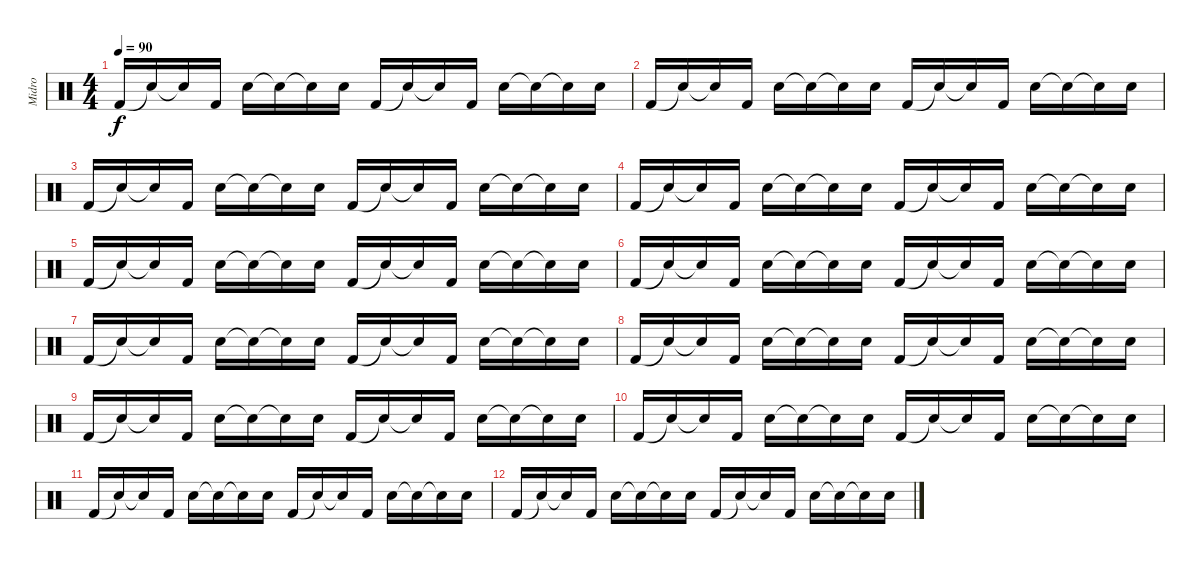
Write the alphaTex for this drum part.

\track ("Midro" "Midro") {instrument percussion}
\staff {score}
\articulation defaults
\ts (4 4)
\tempo 90
\clef neutral
\ks c "Kick (hit) 2".16{dy f} "Snare (hit)"{t}.16 "Snare (hit)"{t}.16 "Kick (hit) 2".16 "Electric Snare (hit)".16 "Snare (hit)"{t}.16 "Electric Snare (hit)"{t}.16 "Electric Snare (hit)".16 "Kick (hit) 2".16 "Snare (hit)"{t}.16 "Snare (hit)"{t}.16 "Kick (hit) 2".16 "Electric Snare (hit)".16 "Snare (hit)"{t}.16 "Snare (hit)"{t}.16 "Electric Snare (hit)".16
|
"Kick (hit) 2".16 "Snare (hit)"{t}.16 "Snare (hit)"{t}.16 "Kick (hit) 2".16 "Electric Snare (hit)".16 "Snare (hit)"{t}.16 "Electric Snare (hit)"{t}.16 "Electric Snare (hit)".16 "Kick (hit) 2".16 "Snare (hit)"{t}.16 "Snare (hit)"{t}.16 "Kick (hit) 2".16 "Electric Snare (hit)".16 "Snare (hit)"{t}.16 "Snare (hit)"{t}.16 "Electric Snare (hit)".16 |
"Kick (hit) 2".16 "Snare (hit)"{t}.16 "Snare (hit)"{t}.16 "Kick (hit) 2".16 "Electric Snare (hit)".16 "Snare (hit)"{t}.16 "Electric Snare (hit)"{t}.16 "Electric Snare (hit)".16 "Kick (hit) 2".16 "Snare (hit)"{t}.16 "Snare (hit)"{t}.16 "Kick (hit) 2".16 "Electric Snare (hit)".16 "Snare (hit)"{t}.16 "Snare (hit)"{t}.16 "Electric Snare (hit)".16 |
"Kick (hit) 2".16 "Snare (hit)"{t}.16 "Snare (hit)"{t}.16 "Kick (hit) 2".16 "Electric Snare (hit)".16 "Snare (hit)"{t}.16 "Electric Snare (hit)"{t}.16 "Electric Snare (hit)".16 "Kick (hit) 2".16 "Snare (hit)"{t}.16 "Snare (hit)"{t}.16 "Kick (hit) 2".16 "Electric Snare (hit)".16 "Snare (hit)"{t}.16 "Snare (hit)"{t}.16 "Electric Snare (hit)".16 |
"Kick (hit) 2".16 "Snare (hit)"{t}.16 "Snare (hit)"{t}.16 "Kick (hit) 2".16 "Electric Snare (hit)".16 "Snare (hit)"{t}.16 "Electric Snare (hit)"{t}.16 "Electric Snare (hit)".16 "Kick (hit) 2".16 "Snare (hit)"{t}.16 "Snare (hit)"{t}.16 "Kick (hit) 2".16 "Electric Snare (hit)".16 "Snare (hit)"{t}.16 "Snare (hit)"{t}.16 "Electric Snare (hit)".16 |
"Kick (hit) 2".16 "Snare (hit)"{t}.16 "Snare (hit)"{t}.16 "Kick (hit) 2".16 "Electric Snare (hit)".16 "Snare (hit)"{t}.16 "Electric Snare (hit)"{t}.16 "Electric Snare (hit)".16 "Kick (hit) 2".16 "Snare (hit)"{t}.16 "Snare (hit)"{t}.16 "Kick (hit) 2".16 "Electric Snare (hit)".16 "Snare (hit)"{t}.16 "Snare (hit)"{t}.16 "Electric Snare (hit)".16 |
"Kick (hit) 2".16 "Snare (hit)"{t}.16 "Snare (hit)"{t}.16 "Kick (hit) 2".16 "Electric Snare (hit)".16 "Snare (hit)"{t}.16 "Electric Snare (hit)"{t}.16 "Electric Snare (hit)".16 "Kick (hit) 2".16 "Snare (hit)"{t}.16 "Snare (hit)"{t}.16 "Kick (hit) 2".16 "Electric Snare (hit)".16 "Snare (hit)"{t}.16 "Snare (hit)"{t}.16 "Electric Snare (hit)".16 |
"Kick (hit) 2".16 "Snare (hit)"{t}.16 "Snare (hit)"{t}.16 "Kick (hit) 2".16 "Electric Snare (hit)".16 "Snare (hit)"{t}.16 "Electric Snare (hit)"{t}.16 "Electric Snare (hit)".16 "Kick (hit) 2".16 "Snare (hit)"{t}.16 "Snare (hit)"{t}.16 "Kick (hit) 2".16 "Electric Snare (hit)".16 "Snare (hit)"{t}.16 "Snare (hit)"{t}.16 "Electric Snare (hit)".16 |
"Kick (hit) 2".16 "Snare (hit)"{t}.16 "Snare (hit)"{t}.16 "Kick (hit) 2".16 "Electric Snare (hit)".16 "Snare (hit)"{t}.16 "Electric Snare (hit)"{t}.16 "Electric Snare (hit)".16 "Kick (hit) 2".16 "Snare (hit)"{t}.16 "Snare (hit)"{t}.16 "Kick (hit) 2".16 "Electric Snare (hit)".16 "Snare (hit)"{t}.16 "Snare (hit)"{t}.16 "Electric Snare (hit)".16 |
"Kick (hit) 2".16 "Snare (hit)"{t}.16 "Snare (hit)"{t}.16 "Kick (hit) 2".16 "Electric Snare (hit)".16 "Snare (hit)"{t}.16 "Electric Snare (hit)"{t}.16 "Electric Snare (hit)".16 "Kick (hit) 2".16 "Snare (hit)"{t}.16 "Snare (hit)"{t}.16 "Kick (hit) 2".16 "Electric Snare (hit)".16 "Snare (hit)"{t}.16 "Snare (hit)"{t}.16 "Electric Snare (hit)".16 |
"Kick (hit) 2".16 "Snare (hit)"{t}.16 "Snare (hit)"{t}.16 "Kick (hit) 2".16 "Electric Snare (hit)".16 "Snare (hit)"{t}.16 "Electric Snare (hit)"{t}.16 "Electric Snare (hit)".16 "Kick (hit) 2".16 "Snare (hit)"{t}.16 "Snare (hit)"{t}.16 "Kick (hit) 2".16 "Electric Snare (hit)".16 "Snare (hit)"{t}.16 "Snare (hit)"{t}.16 "Electric Snare (hit)".16 |
"Kick (hit) 2".16 "Snare (hit)"{t}.16 "Snare (hit)"{t}.16 "Kick (hit) 2".16 "Electric Snare (hit)".16 "Snare (hit)"{t}.16 "Electric Snare (hit)"{t}.16 "Electric Snare (hit)".16 "Kick (hit) 2".16 "Snare (hit)"{t}.16 "Snare (hit)"{t}.16 "Kick (hit) 2".16 "Electric Snare (hit)".16 "Snare (hit)"{t}.16 "Snare (hit)"{t}.16 "Electric Snare (hit)".16
